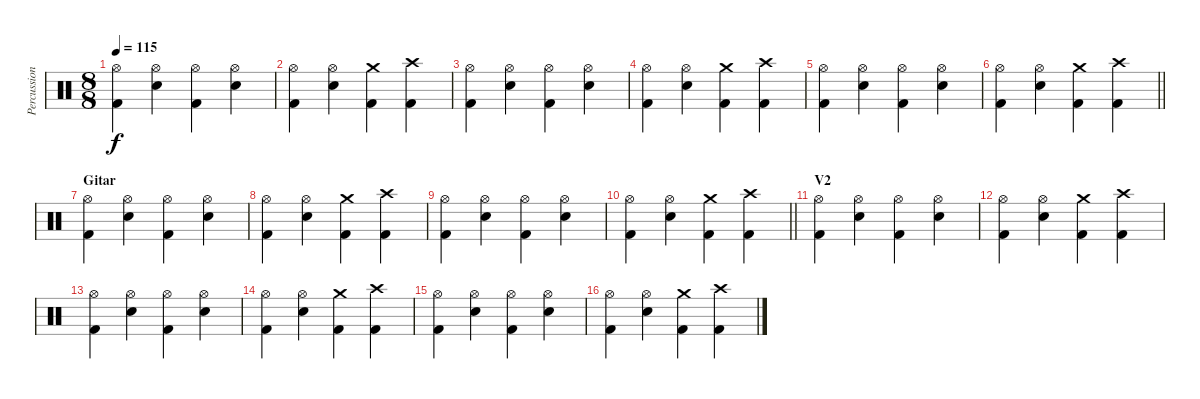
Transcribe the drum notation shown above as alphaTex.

\track ("Percussion" "Percussion") {instrument percussion}
\staff {score}
\articulation defaults
\ts (8 8)
\tempo 115
\clef neutral
\ks c
("Hi-Hat (open)" "Kick (hit) 2").4{dy f} ("Hi-Hat (open)" "Snare (hit) 2").4 ("Hi-Hat (open)" "Kick (hit) 2").4 ("Hi-Hat (open)" "Snare (hit) 2").4 |
("Hi-Hat (open)" "Kick (hit) 2").4 ("Hi-Hat (open)" "Snare (hit) 2").4 ("Crash medium (hit)" "Kick (hit) 2").4 ("Crash high (hit)" "Kick (hit) 2").4 |
("Hi-Hat (open)" "Kick (hit) 2").4 ("Hi-Hat (open)" "Snare (hit) 2").4 ("Hi-Hat (open)" "Kick (hit) 2").4 ("Hi-Hat (open)" "Snare (hit) 2").4 |
("Hi-Hat (open)" "Kick (hit) 2").4 ("Hi-Hat (open)" "Snare (hit) 2").4 ("Crash medium (hit)" "Kick (hit) 2").4 ("Crash high (hit)" "Kick (hit) 2").4 |
("Hi-Hat (open)" "Kick (hit) 2").4 ("Hi-Hat (open)" "Snare (hit) 2").4 ("Hi-Hat (open)" "Kick (hit) 2").4 ("Hi-Hat (open)" "Snare (hit) 2").4 |
\barLineRight lightlight
("Hi-Hat (open)" "Kick (hit) 2").4 ("Hi-Hat (open)" "Snare (hit) 2").4 ("Crash medium (hit)" "Kick (hit) 2").4 ("Crash high (hit)" "Kick (hit) 2").4 |
\section ("" "Gitar")
("Hi-Hat (open)" "Kick (hit) 2").4 ("Hi-Hat (open)" "Snare (hit) 2").4 ("Hi-Hat (open)" "Kick (hit) 2").4 ("Hi-Hat (open)" "Snare (hit) 2").4 |
("Hi-Hat (open)" "Kick (hit) 2").4 ("Hi-Hat (open)" "Snare (hit) 2").4 ("Crash medium (hit)" "Kick (hit) 2").4 ("Crash high (hit)" "Kick (hit) 2").4 |
("Hi-Hat (open)" "Kick (hit) 2").4 ("Hi-Hat (open)" "Snare (hit) 2").4 ("Hi-Hat (open)" "Kick (hit) 2").4 ("Hi-Hat (open)" "Snare (hit) 2").4 |
\barLineRight lightlight
("Hi-Hat (open)" "Kick (hit) 2").4 ("Hi-Hat (open)" "Snare (hit) 2").4 ("Crash medium (hit)" "Kick (hit) 2").4 ("Crash high (hit)" "Kick (hit) 2").4 |
\section ("" "V2")
("Hi-Hat (open)" "Kick (hit) 2").4 ("Hi-Hat (open)" "Snare (hit) 2").4 ("Hi-Hat (open)" "Kick (hit) 2").4 ("Hi-Hat (open)" "Snare (hit) 2").4 |
("Hi-Hat (open)" "Kick (hit) 2").4 ("Hi-Hat (open)" "Snare (hit) 2").4 ("Crash medium (hit)" "Kick (hit) 2").4 ("Crash high (hit)" "Kick (hit) 2").4 |
("Hi-Hat (open)" "Kick (hit) 2").4 ("Hi-Hat (open)" "Snare (hit) 2").4 ("Hi-Hat (open)" "Kick (hit) 2").4 ("Hi-Hat (open)" "Snare (hit) 2").4 |
("Hi-Hat (open)" "Kick (hit) 2").4 ("Hi-Hat (open)" "Snare (hit) 2").4 ("Crash medium (hit)" "Kick (hit) 2").4 ("Crash high (hit)" "Kick (hit) 2").4 |
("Hi-Hat (open)" "Kick (hit) 2").4 ("Hi-Hat (open)" "Snare (hit) 2").4 ("Hi-Hat (open)" "Kick (hit) 2").4 ("Hi-Hat (open)" "Snare (hit) 2").4 |
("Hi-Hat (open)" "Kick (hit) 2").4 ("Hi-Hat (open)" "Snare (hit) 2").4 ("Crash medium (hit)" "Kick (hit) 2").4 ("Crash high (hit)" "Kick (hit) 2").4
